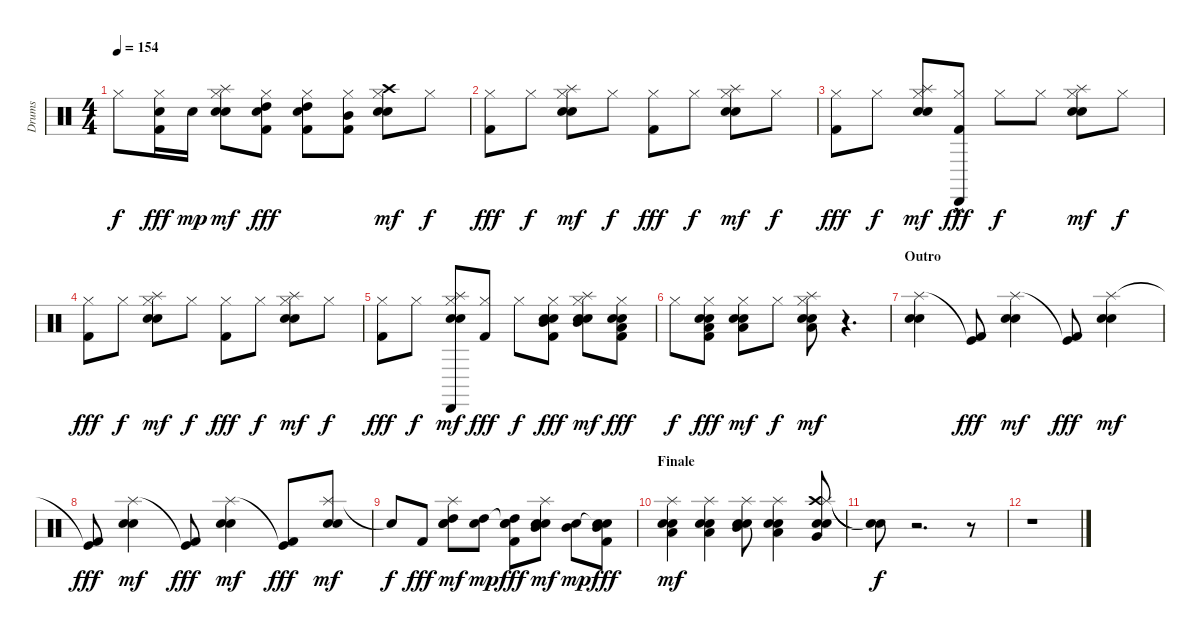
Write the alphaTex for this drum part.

\track ("Drums" "Drums") {instrument percussion}
\staff {score}
\articulation defaults
\ts (4 4)
\tempo 154
\clef neutral
\ks c "Hi-Hat (closed)".8{dy f}
("Hi-Hat (closed)" "Snare (hit) 2" "Kick (hit) 2").16{dy fff} "Snare (hit) 2".16{dy mp} ("Splash (hit)" "Hi-Hat (closed)" "Electric Snare (hit)" "Snare (hit) 2").8{dy mf} ("Hi-Hat (closed)" "High Tom (hit)" "Snare (hit) 2" "Kick (hit) 2").8{dy fff} ("Hi-Hat (closed)" "High Tom (hit)" "Snare (hit) 2" "Kick (hit) 2").8 ("Hi-Hat (closed)" "Mid Tom (hit)" "Kick (hit) 2").8 ("Crash high (hit)" "Hi-Hat (closed)" "Electric Snare (hit)" "Snare (hit) 2").8{dy mf} "Hi-Hat (closed)".8{dy f} |
("Hi-Hat (closed)" "Kick (hit) 2").8{dy fff} "Hi-Hat (closed)".8{dy f} ("Splash (hit)" "Hi-Hat (closed)" "Electric Snare (hit)" "Snare (hit) 2").8{dy mf} "Hi-Hat (closed)".8{dy f} ("Hi-Hat (closed)" "Kick (hit) 2").8{dy fff} "Hi-Hat (closed)".8{dy f} ("Splash (hit)" "Hi-Hat (closed)" "Electric Snare (hit)" "Snare (hit) 2").8{dy mf} "Hi-Hat (closed)".8{dy f} |
("Hi-Hat (closed)" "Kick (hit) 2").8{dy fff} "Hi-Hat (closed)".8{dy f} ("Splash (hit)" "Hi-Hat (closed)" "Electric Snare (hit)" "Snare (hit) 2").8{dy mf} ("Hi-Hat (closed)" "Cabasa (hit)"{hac} "Kick (hit) 2"{hac}).8{dy fff} "Hi-Hat (closed)".8{dy f} "Hi-Hat (closed)".8 ("Splash (hit)" "Hi-Hat (closed)" "Electric Snare (hit)" "Snare (hit) 2").8{dy mf} "Hi-Hat (closed)".8{dy f} |
("Hi-Hat (closed)" "Kick (hit) 2").8{dy fff} "Hi-Hat (closed)".8{dy f} ("Splash (hit)" "Hi-Hat (closed)" "Electric Snare (hit)" "Snare (hit) 2").8{dy mf} "Hi-Hat (closed)".8{dy f} ("Hi-Hat (closed)" "Kick (hit) 2").8{dy fff} "Hi-Hat (closed)".8{dy f} ("Splash (hit)" "Hi-Hat (closed)" "Electric Snare (hit)" "Snare (hit) 2").8{dy mf} "Hi-Hat (closed)".8{dy f} |
("Hi-Hat (closed)" "Kick (hit) 2").8{dy fff} "Hi-Hat (closed)".8{dy f} ("Splash (hit)" "Hi-Hat (closed)" "Cabasa (hit)" "Electric Snare (hit)" "Snare (hit) 2").8{dy mf} ("Hi-Hat (closed)" "Kick (hit) 2").8{dy fff} "Hi-Hat (closed)".8{dy f} ("Hi-Hat (closed)" "Hand Clap (hit)" "Mid Tom (hit)" "Snare (hit) 2" "Kick (hit) 2").8{dy fff} ("Splash (hit)" "Hi-Hat (closed)" "Electric Snare (hit)" "Mid Tom (hit)" "Snare (hit) 2").8{dy mf} ("Hi-Hat (closed)" "Hand Clap (hit)" "Low Tom (hit)" "Snare (hit) 2" "Kick (hit) 2").8{dy fff} |
"Hi-Hat (closed)".8{dy f} ("Hi-Hat (closed)" "Hand Clap (hit)" "Low Tom (hit)" "Snare (hit) 2" "Kick (hit) 2").8{dy fff} ("Hi-Hat (closed)" "Hand Clap (hit)" "Low Tom (hit)" "Snare (hit) 2").8{dy mf} "Hi-Hat (closed)".8{dy f} ("Splash (hit)" "Hi-Hat (closed)" "Hand Clap (hit)" "Low Tom (hit)" "Snare (hit) 2").8{dy mf} r.4{d} |
\section ("" "Outro")
("Splash (hit)" "Electric Snare (hit)" "Snare (hit) 2").4 ("Kick (hit)"{t} "Kick (hit) 2").8{dy fff} ("Splash (hit)" "Electric Snare (hit)" "Snare (hit) 2").4{dy mf} ("Kick (hit)"{t} "Kick (hit) 2").8{dy fff} ("Splash (hit)" "Electric Snare (hit)" "Snare (hit) 2").4{dy mf} |
("Kick (hit)"{t} "Kick (hit) 2").8{dy fff} ("Splash (hit)" "Electric Snare (hit)" "Snare (hit) 2").4{dy mf} ("Kick (hit)"{t} "Kick (hit) 2").8{dy fff} ("Splash (hit)" "Electric Snare (hit)" "Snare (hit) 2").4{dy mf} ("Kick (hit)"{t} "Kick (hit) 2").8{dy fff} ("Splash (hit)" "Electric Snare (hit)" "Snare (hit) 2").8{dy mf} |
"Snare (hit)"{t}.8{dy f} "Kick (hit) 2".8{dy fff} ("Splash (hit)" "Electric Snare (hit)" "High Tom (hit)" "Snare (hit) 2").8{dy mf} ("High Tom (hit)" "Snare (hit) 2").8{dy mp} ("Snare (hit) 2"{t} "High Tom (hit)" "Snare (hit) 2" "Kick (hit) 2").8{dy fff} ("Splash (hit)" "Electric Snare (hit)" "Mid Tom (hit)" "Snare (hit) 2").8{dy mf} ("Mid Tom (hit)" "Snare (hit) 2").8{dy mp} ("Snare (hit) 2"{t} "Mid Tom (hit)" "Snare (hit) 2" "Kick (hit) 2").8{dy fff} |
\section ("" "Finale")
("Splash (hit)" "Electric Snare (hit)" "Low Tom (hit)" "Snare (hit) 2").4{dy mf} ("Splash (hit)" "Electric Snare (hit)" "Low Tom (hit)" "Snare (hit) 2").4 ("Splash (hit)" "Electric Snare (hit)" "Mid Tom (hit)" "Snare (hit) 2").8 ("Splash (hit)" "Electric Snare (hit)" "Low Tom (hit)" "Snare (hit) 2").4 ("Crash high (hit)" "Splash (hit)" "Electric Snare (hit)" "Very Low Tom (hit)" "Snare (hit) 2").8 |
("Snare (hit)"{t} "Snare (hit)"{t}).8{dy f} r.2{d} r.8 |
r.1
